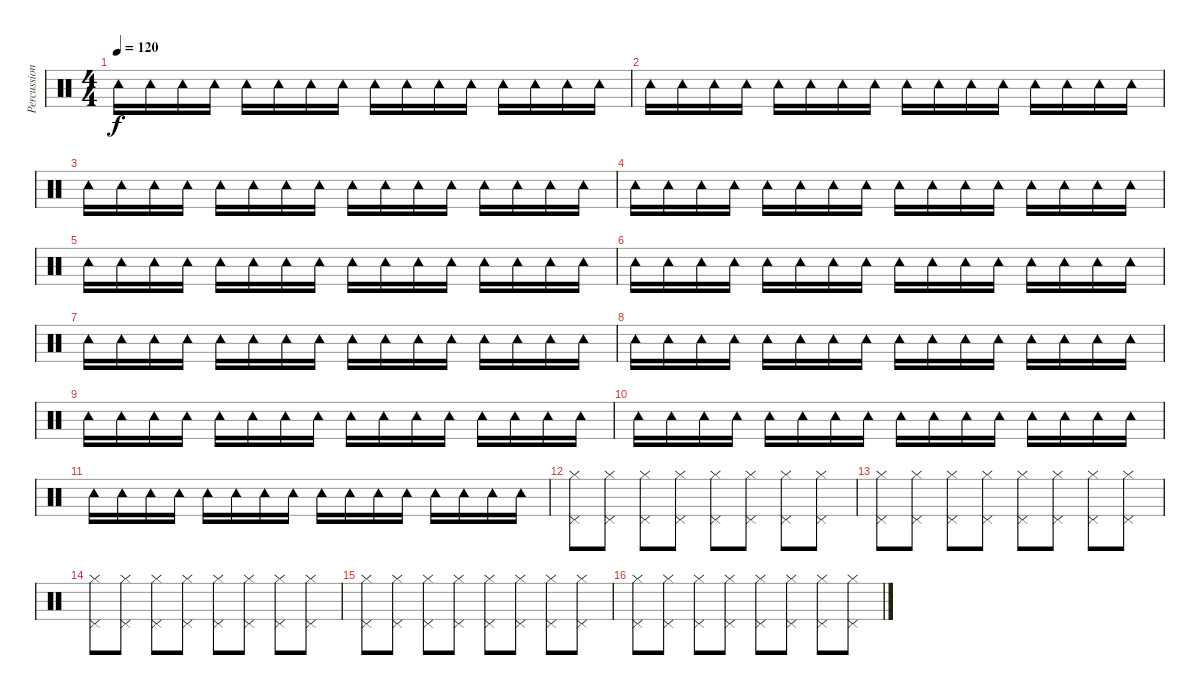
\track ("Percussion" "Percussion") {instrument percussion}
\staff {score}
\articulation defaults
\ts (4 4)
\tempo 120
\clef neutral
\ks c "Tambourine (hit)".16{dy f} "Tambourine (hit)".16 "Tambourine (hit)".16 "Tambourine (hit)".16 "Tambourine (hit)".16 "Tambourine (hit)".16 "Tambourine (hit)".16 "Tambourine (hit)".16 "Tambourine (hit)".16 "Tambourine (hit)".16 "Tambourine (hit)".16 "Tambourine (hit)".16 "Tambourine (hit)".16 "Tambourine (hit)".16 "Tambourine (hit)".16 "Tambourine (hit)".16
|
"Tambourine (hit)".16 "Tambourine (hit)".16 "Tambourine (hit)".16 "Tambourine (hit)".16 "Tambourine (hit)".16 "Tambourine (hit)".16 "Tambourine (hit)".16 "Tambourine (hit)".16 "Tambourine (hit)".16 "Tambourine (hit)".16 "Tambourine (hit)".16 "Tambourine (hit)".16 "Tambourine (hit)".16 "Tambourine (hit)".16 "Tambourine (hit)".16 "Tambourine (hit)".16 |
"Tambourine (hit)".16 "Tambourine (hit)".16 "Tambourine (hit)".16 "Tambourine (hit)".16 "Tambourine (hit)".16 "Tambourine (hit)".16 "Tambourine (hit)".16 "Tambourine (hit)".16 "Tambourine (hit)".16 "Tambourine (hit)".16 "Tambourine (hit)".16 "Tambourine (hit)".16 "Tambourine (hit)".16 "Tambourine (hit)".16 "Tambourine (hit)".16 "Tambourine (hit)".16 |
"Tambourine (hit)".16 "Tambourine (hit)".16 "Tambourine (hit)".16 "Tambourine (hit)".16 "Tambourine (hit)".16 "Tambourine (hit)".16 "Tambourine (hit)".16 "Tambourine (hit)".16 "Tambourine (hit)".16 "Tambourine (hit)".16 "Tambourine (hit)".16 "Tambourine (hit)".16 "Tambourine (hit)".16 "Tambourine (hit)".16 "Tambourine (hit)".16 "Tambourine (hit)".16 |
"Tambourine (hit)".16 "Tambourine (hit)".16 "Tambourine (hit)".16 "Tambourine (hit)".16 "Tambourine (hit)".16 "Tambourine (hit)".16 "Tambourine (hit)".16 "Tambourine (hit)".16 "Tambourine (hit)".16 "Tambourine (hit)".16 "Tambourine (hit)".16 "Tambourine (hit)".16 "Tambourine (hit)".16 "Tambourine (hit)".16 "Tambourine (hit)".16 "Tambourine (hit)".16 |
"Tambourine (hit)".16 "Tambourine (hit)".16 "Tambourine (hit)".16 "Tambourine (hit)".16 "Tambourine (hit)".16 "Tambourine (hit)".16 "Tambourine (hit)".16 "Tambourine (hit)".16 "Tambourine (hit)".16 "Tambourine (hit)".16 "Tambourine (hit)".16 "Tambourine (hit)".16 "Tambourine (hit)".16 "Tambourine (hit)".16 "Tambourine (hit)".16 "Tambourine (hit)".16 |
"Tambourine (hit)".16 "Tambourine (hit)".16 "Tambourine (hit)".16 "Tambourine (hit)".16 "Tambourine (hit)".16 "Tambourine (hit)".16 "Tambourine (hit)".16 "Tambourine (hit)".16 "Tambourine (hit)".16 "Tambourine (hit)".16 "Tambourine (hit)".16 "Tambourine (hit)".16 "Tambourine (hit)".16 "Tambourine (hit)".16 "Tambourine (hit)".16 "Tambourine (hit)".16 |
"Tambourine (hit)".16 "Tambourine (hit)".16 "Tambourine (hit)".16 "Tambourine (hit)".16 "Tambourine (hit)".16 "Tambourine (hit)".16 "Tambourine (hit)".16 "Tambourine (hit)".16 "Tambourine (hit)".16 "Tambourine (hit)".16 "Tambourine (hit)".16 "Tambourine (hit)".16 "Tambourine (hit)".16 "Tambourine (hit)".16 "Tambourine (hit)".16 "Tambourine (hit)".16 |
"Tambourine (hit)".16 "Tambourine (hit)".16 "Tambourine (hit)".16 "Tambourine (hit)".16 "Tambourine (hit)".16 "Tambourine (hit)".16 "Tambourine (hit)".16 "Tambourine (hit)".16 "Tambourine (hit)".16 "Tambourine (hit)".16 "Tambourine (hit)".16 "Tambourine (hit)".16 "Tambourine (hit)".16 "Tambourine (hit)".16 "Tambourine (hit)".16 "Tambourine (hit)".16 |
"Tambourine (hit)".16 "Tambourine (hit)".16 "Tambourine (hit)".16 "Tambourine (hit)".16 "Tambourine (hit)".16 "Tambourine (hit)".16 "Tambourine (hit)".16 "Tambourine (hit)".16 "Tambourine (hit)".16 "Tambourine (hit)".16 "Tambourine (hit)".16 "Tambourine (hit)".16 "Tambourine (hit)".16 "Tambourine (hit)".16 "Tambourine (hit)".16 "Tambourine (hit)".16 |
"Tambourine (hit)".16 "Tambourine (hit)".16 "Tambourine (hit)".16 "Tambourine (hit)".16 "Tambourine (hit)".16 "Tambourine (hit)".16 "Tambourine (hit)".16 "Tambourine (hit)".16 "Tambourine (hit)".16 "Tambourine (hit)".16 "Tambourine (hit)".16 "Tambourine (hit)".16 "Tambourine (hit)".16 "Tambourine (hit)".16 "Tambourine (hit)".16 "Tambourine (hit)".16 |
("Hi-Hat (closed)" "Pedal Hi-Hat (hit)").8 ("Hi-Hat (closed)" "Pedal Hi-Hat (hit)").8 ("Hi-Hat (closed)" "Pedal Hi-Hat (hit)").8 ("Hi-Hat (closed)" "Pedal Hi-Hat (hit)").8 ("Hi-Hat (closed)" "Pedal Hi-Hat (hit)").8 ("Hi-Hat (closed)" "Pedal Hi-Hat (hit)").8 ("Hi-Hat (closed)" "Pedal Hi-Hat (hit)").8 ("Hi-Hat (closed)" "Pedal Hi-Hat (hit)").8 |
("Hi-Hat (closed)" "Pedal Hi-Hat (hit)").8 ("Hi-Hat (closed)" "Pedal Hi-Hat (hit)").8 ("Hi-Hat (closed)" "Pedal Hi-Hat (hit)").8 ("Hi-Hat (closed)" "Pedal Hi-Hat (hit)").8 ("Hi-Hat (closed)" "Pedal Hi-Hat (hit)").8 ("Hi-Hat (closed)" "Pedal Hi-Hat (hit)").8 ("Hi-Hat (closed)" "Pedal Hi-Hat (hit)").8 ("Hi-Hat (closed)" "Pedal Hi-Hat (hit)").8 |
("Hi-Hat (closed)" "Pedal Hi-Hat (hit)").8 ("Hi-Hat (closed)" "Pedal Hi-Hat (hit)").8 ("Hi-Hat (closed)" "Pedal Hi-Hat (hit)").8 ("Hi-Hat (closed)" "Pedal Hi-Hat (hit)").8 ("Hi-Hat (closed)" "Pedal Hi-Hat (hit)").8 ("Hi-Hat (closed)" "Pedal Hi-Hat (hit)").8 ("Hi-Hat (closed)" "Pedal Hi-Hat (hit)").8 ("Hi-Hat (closed)" "Pedal Hi-Hat (hit)").8 |
("Hi-Hat (closed)" "Pedal Hi-Hat (hit)").8 ("Hi-Hat (closed)" "Pedal Hi-Hat (hit)").8 ("Hi-Hat (closed)" "Pedal Hi-Hat (hit)").8 ("Hi-Hat (closed)" "Pedal Hi-Hat (hit)").8 ("Hi-Hat (closed)" "Pedal Hi-Hat (hit)").8 ("Hi-Hat (closed)" "Pedal Hi-Hat (hit)").8 ("Hi-Hat (closed)" "Pedal Hi-Hat (hit)").8 ("Hi-Hat (closed)" "Pedal Hi-Hat (hit)").8 |
("Hi-Hat (closed)" "Pedal Hi-Hat (hit)").8 ("Hi-Hat (closed)" "Pedal Hi-Hat (hit)").8 ("Hi-Hat (closed)" "Pedal Hi-Hat (hit)").8 ("Hi-Hat (closed)" "Pedal Hi-Hat (hit)").8 ("Hi-Hat (closed)" "Pedal Hi-Hat (hit)").8 ("Hi-Hat (closed)" "Pedal Hi-Hat (hit)").8 ("Hi-Hat (closed)" "Pedal Hi-Hat (hit)").8 ("Hi-Hat (closed)" "Pedal Hi-Hat (hit)").8
